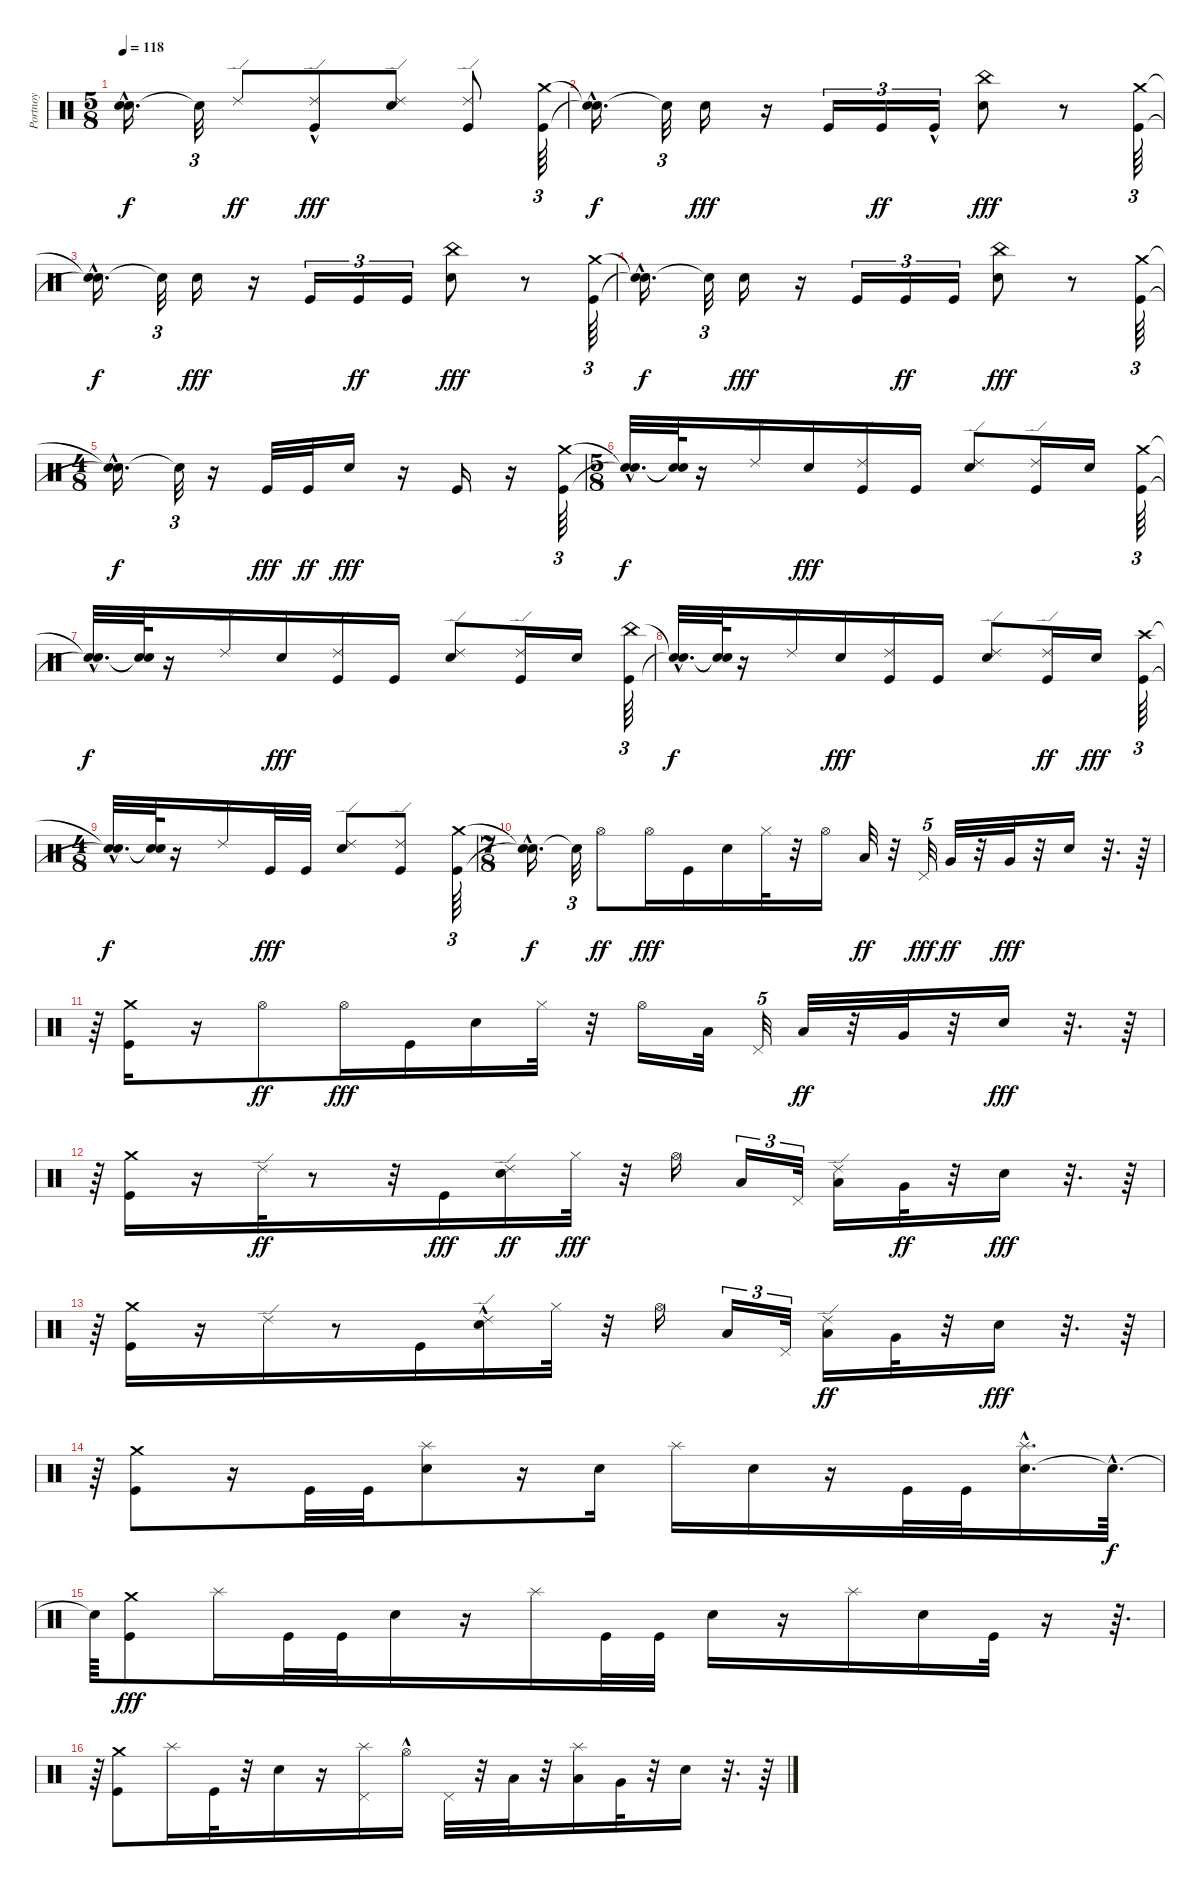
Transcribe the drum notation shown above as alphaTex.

\track ("Portnoy" "Portnoy") {instrument percussion}
\staff {score}
\articulation defaults
\ts (5 8)
\tempo 118
\clef neutral
\ks c
("Snare (hit)"{hac t} "Snare (hit)"{hac t}).16{d dy f} "Snare (hit)"{t}.32{tu (3 2)} "Ride (edge) 2".8{dy ff} ("Ride (edge) 2" "Kick (hit)"{hac}).8{dy fff} ("Ride (edge) 2" "Snare (hit) 2").8 ("Ride (edge) 2" "Kick (hit)").8 ("Crash medium (hit)" "Kick (hit)").64{tu (3 2)} |
("Snare (hit)"{hac t} "Snare (hit)"{hac t}).16{d dy f} "Snare (hit)"{t}.32{tu (3 2)} "Snare (hit) 2".16{dy fff} r.16 "Kick (hit)".16{tu (3 2)} "Kick (hit)".16{tu (3 2) dy ff} "Kick (hit)"{hac}.16{tu (3 2)} ("Snare (hit) 2" "China (hit)").8{dy fff} r.8 ("Crash medium (hit)" "Kick (hit)").64{tu (3 2)} |
("Snare (hit)"{hac t} "Snare (hit)"{hac t}).16{d dy f} "Snare (hit)"{t}.32{tu (3 2)} "Snare (hit) 2".16{dy fff} r.16 "Kick (hit)".16{tu (3 2)} "Kick (hit)".16{tu (3 2) dy ff} "Kick (hit)".16{tu (3 2)} ("Snare (hit) 2" "China (hit)").8{dy fff} r.8 ("Kick (hit)" "Crash medium (hit)").64{tu (3 2)} |
("Snare (hit)"{hac t} "Snare (hit)"{hac t}).16{d dy f} "Snare (hit)"{t}.32{tu (3 2)} "Snare (hit) 2".16{dy fff} r.16 "Kick (hit)".16{tu (3 2)} "Kick (hit)".16{tu (3 2) dy ff} "Kick (hit)".16{tu (3 2)} ("China (hit)" "Snare (hit) 2").8{dy fff} r.8 ("Crash medium (hit)" "Kick (hit)").64{tu (3 2)} |
\ts (4 8)
("Snare (hit)"{hac t} "Snare (hit)"{hac t}).16{d dy f} "Snare (hit)"{t}.32{tu (3 2)} r.16 "Kick (hit)".32{dy fff} "Kick (hit)".32{dy ff} "Snare (hit) 2".16{dy fff} r.16 "Kick (hit)".16 r.16 ("Crash medium (hit)" "Kick (hit)").64{tu (3 2)} |
\ts (5 8)
("Snare (hit)"{hac t} "Snare (hit)"{hac t}).32{d dy f} ("Snare (hit)"{t} "Snare (hit)"{t}).64 r.16 "Ride (edge) 2".16 "Snare (hit) 2".16{dy fff} ("Kick (hit)" "Ride (edge) 2").16 "Kick (hit)".16 ("Snare (hit) 2" "Ride (edge) 2").8 ("Ride (edge) 2" "Kick (hit)").16 "Snare (hit) 2".16 ("Crash medium (hit)" "Kick (hit)").64{tu (3 2)} |
("Snare (hit)"{hac t} "Snare (hit)"{hac t}).32{d dy f} ("Snare (hit)"{t} "Snare (hit)"{t}).64 r.16 "Ride (edge) 2".16 "Snare (hit) 2".16{dy fff} ("Ride (edge) 2" "Kick (hit)").16 "Kick (hit)".16 ("Snare (hit) 2" "Ride (edge) 2").8 ("Ride (edge) 2" "Kick (hit)").16 "Snare (hit) 2".16 ("China (hit)" "Kick (hit)").64{tu (3 2)} |
("Snare (hit)"{hac t} "Snare (hit)"{hac t}).32{d dy f} ("Snare (hit)"{t} "Snare (hit)"{t}).64 r.16 "Ride (edge) 2".16 "Snare (hit) 2".16{dy fff} ("Ride (edge) 2" "Kick (hit)").16 "Kick (hit)".16 ("Ride (edge) 2" "Snare (hit) 2").8 ("Ride (edge) 2" "Kick (hit)").16{dy ff} "Snare (hit) 2".16{dy fff} ("Crash high (hit)" "Kick (hit)").64{tu (3 2)} |
\ts (4 8)
("Snare (hit)"{hac t} "Snare (hit)"{hac t}).32{d dy f} ("Snare (hit)"{t} "Snare (hit)"{t}).64 r.16 "Ride (edge) 2".16 "Kick (hit)".32{dy fff} "Kick (hit)".32 ("Snare (hit) 2" "Ride (edge) 2").8 ("Ride (edge) 2" "Kick (hit)").8 ("Kick (hit)" "Crash medium (hit)").64{tu (3 2)} |
\ts (7 8)
("Snare (hit)"{hac t} "Snare (hit)"{hac t}).16{d dy f} "Snare (hit)"{t}.32{tu (3 2)} "Hi-Hat (open)".8{dy ff} "Hi-Hat (open)".16{dy fff} "Kick (hit)".16 "Snare (hit) 2".16 "Hi-Hat (closed)".32 r.32 "Hi-Hat (open)".16 "Low Tom (hit)".32{dy ff} r.32 "Pedal Hi-Hat (hit)".32{tu (5 4) dy fff} "Very Low Tom (hit)".32{dy ff} r.32 "Very Low Tom (hit)".32{dy fff} r.32 "Snare (hit) 2".16 r.32{d} r.64 |
r.64 ("Crash medium (hit)" "Kick (hit)").16 r.16 "Hi-Hat (open)".8{dy ff} "Hi-Hat (open)".16{dy fff} "Kick (hit)".16 "Snare (hit) 2".16 "Hi-Hat (closed)".32 r.32 "Hi-Hat (open)".16 "Low Tom (hit)".32 "Pedal Hi-Hat (hit)".32{tu (5 4)} "Low Tom (hit)".32{dy ff} r.32 "Very Low Tom (hit)".32 r.32 "Snare (hit) 2".16{dy fff} r.32{d} r.64 |
r.64 ("Crash medium (hit)" "Kick (hit)").16 r.16 "Ride (edge) 2".32{dy ff} r.8 r.32 "Kick (hit)".16{dy fff} ("Snare (hit) 2" "Ride (edge) 2").16{dy ff} "Hi-Hat (closed)".32{dy fff} r.32 "Hi-Hat (open)".16 "Low Tom (hit)".16{tu (3 2)} "Pedal Hi-Hat (hit)".32{tu (3 2)} ("Low Tom (hit)" "Ride (edge) 2").16 "Very Low Tom (hit)".32{dy ff} r.32 "Snare (hit) 2".16{dy fff} r.32{d} r.64 |
r.64 ("Crash medium (hit)" "Kick (hit)").16 r.16 "Ride (edge) 2".16 r.8 "Kick (hit)".16 ("Ride (edge) 2"{hac} "Snare (hit) 2").16 "Hi-Hat (closed)".32 r.32 "Hi-Hat (open)".16 "Low Tom (hit)".16{tu (3 2)} "Pedal Hi-Hat (hit)".32{tu (3 2)} ("Ride (edge) 2" "Low Tom (hit)").16{dy ff} "Very Low Tom (hit)".32 r.32 "Snare (hit) 2".16{dy fff} r.32{d} r.64 |
r.64 ("Crash medium (hit)" "Kick (hit)").8 r.16 "Kick (hit)".32 "Kick (hit)".32 ("Splash (hit)" "Snare (hit) 2").8 r.16 "Snare (hit) 2".16 "Splash (hit)".16 "Snare (hit) 2".16 r.16 "Kick (hit)".32 "Kick (hit)".32 ("Snare (hit) 2" "Splash (hit)"{hac}).16{d} "Snare (hit)"{hac t}.64{d dy f} |
"Snare (hit)"{t}.64 ("Crash medium (hit)" "Kick (hit)").8{dy fff} "Splash (hit)".16 "Kick (hit)".32 "Kick (hit)".32 "Snare (hit) 2".16 r.16 "Splash (hit)".16 "Kick (hit)".32 "Kick (hit)".32 "Snare (hit) 2".16 r.16 "Splash (hit)".16 "Snare (hit) 2".16 "Kick (hit)".32 r.16 r.64{d} |
r.64 ("Kick (hit)" "Crash medium (hit)").8 "Splash (hit)".16 "Kick (hit)".32 r.32 "Snare (hit) 2".16 r.16 ("Pedal Hi-Hat (hit)" "Splash (hit)").16 "Hi-Hat (open)"{hac}.16 "Pedal Hi-Hat (hit)".32 r.32 "Low Tom (hit)".32 r.32 ("Splash (hit)" "Low Tom (hit)").16 "Very Low Tom (hit)".32 r.32 "Snare (hit) 2".16 r.32{d} r.64
